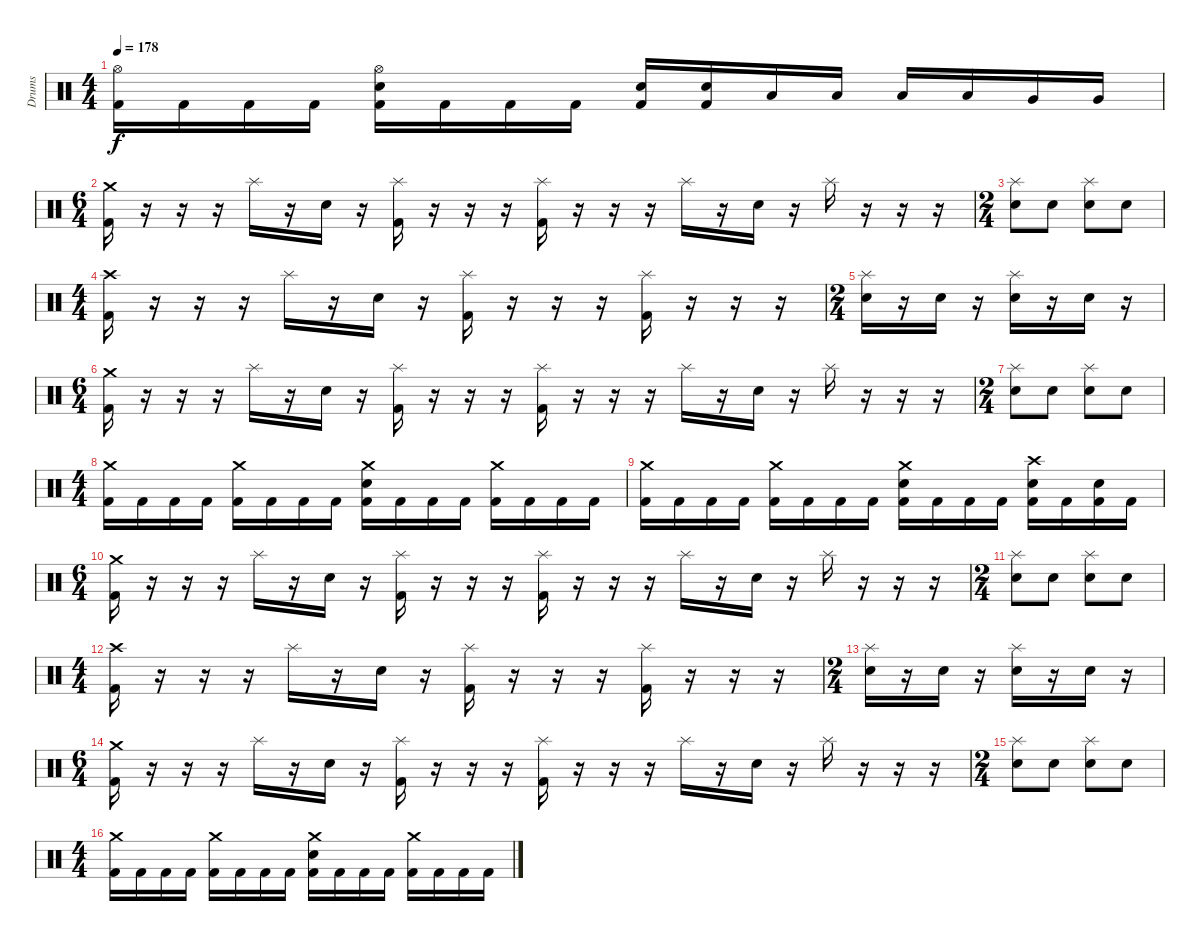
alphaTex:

\track ("Drums" "Drums") {instrument percussion}
\staff {score}
\articulation defaults
\ts (4 4)
\tempo 178
\clef neutral
\ks c
("Hi-Hat (open)" "Kick (hit) 2").16{dy f} "Kick (hit) 2".16 "Kick (hit) 2".16 "Kick (hit) 2".16 ("Hi-Hat (open)" "Electric Snare (hit)" "Kick (hit) 2").16 "Kick (hit) 2".16 "Kick (hit) 2".16 "Kick (hit) 2".16 ("Electric Snare (hit)" "Kick (hit) 2").16 ("Electric Snare (hit)" "Kick (hit) 2").16 "Low Tom (hit)".16 "Low Tom (hit)".16 "Low Tom (hit)".16 "Low Tom (hit)".16 "Very Low Tom (hit)".16 "Very Low Tom (hit)".16 |
\ts (6 4)
("Crash medium (hit)" "Kick (hit) 2").16 r.16 r.16 r.16 "Splash (hit)".16 r.16 "Electric Snare (hit)".16 r.16 ("Splash (hit)" "Kick (hit) 2").16 r.16 r.16 r.16 ("Splash (hit)" "Kick (hit) 2").16 r.16 r.16 r.16 "Splash (hit)".16 r.16 "Electric Snare (hit)".16 r.16 "Splash (hit)".16 r.16 r.16 r.16 |
\ts (2 4)
("Splash (hit)" "Electric Snare (hit)").8 "Electric Snare (hit)".8 ("Splash (hit)" "Electric Snare (hit)").8 "Electric Snare (hit)".8 |
\ts (4 4)
("Crash high (hit)" "Kick (hit) 2").16 r.16 r.16 r.16 "Splash (hit)".16 r.16 "Electric Snare (hit)".16 r.16 ("Splash (hit)" "Kick (hit) 2").16 r.16 r.16 r.16 ("Splash (hit)" "Kick (hit) 2").16 r.16 r.16 r.16 |
\ts (2 4)
("Splash (hit)" "Electric Snare (hit)").16 r.16 "Electric Snare (hit)".16 r.16 ("Splash (hit)" "Electric Snare (hit)").16 r.16 "Electric Snare (hit)".16 r.16 |
\ts (6 4)
("Crash medium (hit)" "Kick (hit) 2").16 r.16 r.16 r.16 "Splash (hit)".16 r.16 "Electric Snare (hit)".16 r.16 ("Splash (hit)" "Kick (hit) 2").16 r.16 r.16 r.16 ("Splash (hit)" "Kick (hit) 2").16 r.16 r.16 r.16 "Splash (hit)".16 r.16 "Electric Snare (hit)".16 r.16 "Splash (hit)".16 r.16 r.16 r.16 |
\ts (2 4)
("Splash (hit)" "Electric Snare (hit)").8 "Electric Snare (hit)".8 ("Splash (hit)" "Electric Snare (hit)").8 "Electric Snare (hit)".8 |
\ts (4 4)
("Crash medium (hit)" "Kick (hit) 2").16 "Kick (hit) 2".16 "Kick (hit) 2".16 "Kick (hit) 2".16 ("Crash medium (hit)" "Kick (hit) 2").16 "Kick (hit) 2".16 "Kick (hit) 2".16 "Kick (hit) 2".16 ("Crash medium (hit)" "Electric Snare (hit)" "Kick (hit) 2").16 "Kick (hit) 2".16 "Kick (hit) 2".16 "Kick (hit) 2".16 ("Crash medium (hit)" "Kick (hit) 2").16 "Kick (hit) 2".16 "Kick (hit) 2".16 "Kick (hit) 2".16 |
("Crash medium (hit)" "Kick (hit) 2").16 "Kick (hit) 2".16 "Kick (hit) 2".16 "Kick (hit) 2".16 ("Crash medium (hit)" "Kick (hit) 2").16 "Kick (hit) 2".16 "Kick (hit) 2".16 "Kick (hit) 2".16 ("Crash medium (hit)" "Electric Snare (hit)" "Kick (hit) 2").16 "Kick (hit) 2".16 "Kick (hit) 2".16 "Kick (hit) 2".16 ("Crash high (hit)" "Electric Snare (hit)" "Kick (hit) 2").16 "Kick (hit) 2".16 ("Electric Snare (hit)" "Kick (hit) 2").16 "Kick (hit) 2".16 |
\ts (6 4)
("Crash medium (hit)" "Kick (hit) 2").16 r.16 r.16 r.16 "Splash (hit)".16 r.16 "Electric Snare (hit)".16 r.16 ("Splash (hit)" "Kick (hit) 2").16 r.16 r.16 r.16 ("Splash (hit)" "Kick (hit) 2").16 r.16 r.16 r.16 "Splash (hit)".16 r.16 "Electric Snare (hit)".16 r.16 "Splash (hit)".16 r.16 r.16 r.16 |
\ts (2 4)
("Splash (hit)" "Electric Snare (hit)").8 "Electric Snare (hit)".8 ("Splash (hit)" "Electric Snare (hit)").8 "Electric Snare (hit)".8 |
\ts (4 4)
("Crash high (hit)" "Kick (hit) 2").16 r.16 r.16 r.16 "Splash (hit)".16 r.16 "Electric Snare (hit)".16 r.16 ("Splash (hit)" "Kick (hit) 2").16 r.16 r.16 r.16 ("Splash (hit)" "Kick (hit) 2").16 r.16 r.16 r.16 |
\ts (2 4)
("Splash (hit)" "Electric Snare (hit)").16 r.16 "Electric Snare (hit)".16 r.16 ("Splash (hit)" "Electric Snare (hit)").16 r.16 "Electric Snare (hit)".16 r.16 |
\ts (6 4)
("Crash medium (hit)" "Kick (hit) 2").16 r.16 r.16 r.16 "Splash (hit)".16 r.16 "Electric Snare (hit)".16 r.16 ("Splash (hit)" "Kick (hit) 2").16 r.16 r.16 r.16 ("Splash (hit)" "Kick (hit) 2").16 r.16 r.16 r.16 "Splash (hit)".16 r.16 "Electric Snare (hit)".16 r.16 "Splash (hit)".16 r.16 r.16 r.16 |
\ts (2 4)
("Splash (hit)" "Electric Snare (hit)").8 "Electric Snare (hit)".8 ("Splash (hit)" "Electric Snare (hit)").8 "Electric Snare (hit)".8 |
\ts (4 4)
("Crash medium (hit)" "Kick (hit) 2").16 "Kick (hit) 2".16 "Kick (hit) 2".16 "Kick (hit) 2".16 ("Crash medium (hit)" "Kick (hit) 2").16 "Kick (hit) 2".16 "Kick (hit) 2".16 "Kick (hit) 2".16 ("Crash medium (hit)" "Electric Snare (hit)" "Kick (hit) 2").16 "Kick (hit) 2".16 "Kick (hit) 2".16 "Kick (hit) 2".16 ("Crash medium (hit)" "Kick (hit) 2").16 "Kick (hit) 2".16 "Kick (hit) 2".16 "Kick (hit) 2".16
